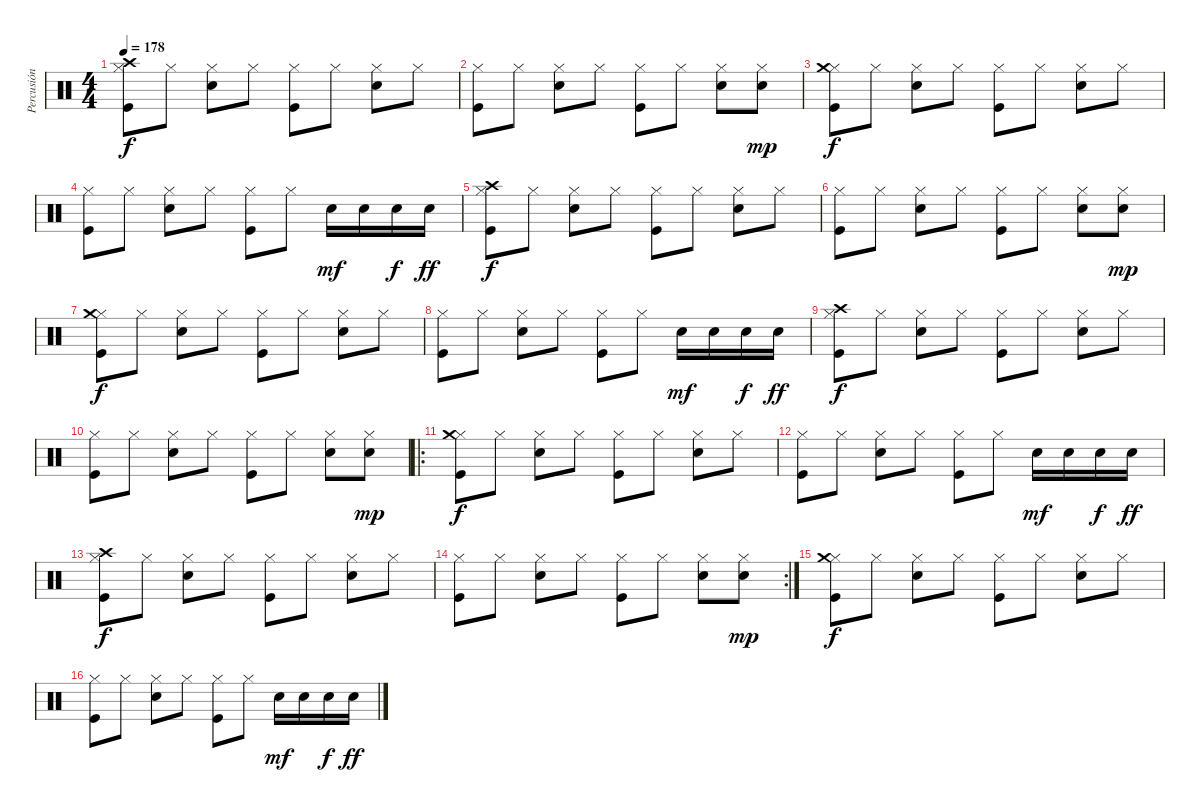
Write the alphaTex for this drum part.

\track ("Percusión" "Percusión") {instrument percussion}
\staff {score}
\articulation defaults
\ts (4 4)
\tempo 178
\clef neutral
\ks c
("Hi-Hat (closed)" "Crash high (hit)" "Kick (hit)").8{dy f} "Hi-Hat (closed)".8 ("Hi-Hat (closed)" "Electric Snare (hit)").8 "Hi-Hat (closed)".8 ("Hi-Hat (closed)" "Kick (hit)").8 "Hi-Hat (closed)".8 ("Hi-Hat (closed)" "Electric Snare (hit)").8 "Hi-Hat (closed)".8 |
("Hi-Hat (closed)" "Kick (hit)").8 "Hi-Hat (closed)".8 ("Hi-Hat (closed)" "Electric Snare (hit)").8 "Hi-Hat (closed)".8 ("Hi-Hat (closed)" "Kick (hit)").8 "Hi-Hat (closed)".8 ("Hi-Hat (closed)" "Electric Snare (hit)").8 ("Hi-Hat (closed)" "Electric Snare (hit)").8{dy mp} |
("Hi-Hat (closed)" "Crash medium (hit)" "Kick (hit)").8{dy f} "Hi-Hat (closed)".8 ("Hi-Hat (closed)" "Electric Snare (hit)").8 "Hi-Hat (closed)".8 ("Hi-Hat (closed)" "Kick (hit)").8 "Hi-Hat (closed)".8 ("Hi-Hat (closed)" "Electric Snare (hit)").8 "Hi-Hat (closed)".8 |
("Hi-Hat (closed)" "Kick (hit)").8 "Hi-Hat (closed)".8 ("Hi-Hat (closed)" "Electric Snare (hit)").8 "Hi-Hat (closed)".8 ("Hi-Hat (closed)" "Kick (hit)").8 "Hi-Hat (closed)".8 "Electric Snare (hit)".16{dy mf} "Electric Snare (hit)".16 "Electric Snare (hit)".16{dy f} "Electric Snare (hit)".16{dy ff} |
("Hi-Hat (closed)" "Crash high (hit)" "Kick (hit)").8{dy f} "Hi-Hat (closed)".8 ("Hi-Hat (closed)" "Electric Snare (hit)").8 "Hi-Hat (closed)".8 ("Hi-Hat (closed)" "Kick (hit)").8 "Hi-Hat (closed)".8 ("Hi-Hat (closed)" "Electric Snare (hit)").8 "Hi-Hat (closed)".8 |
("Hi-Hat (closed)" "Kick (hit)").8 "Hi-Hat (closed)".8 ("Hi-Hat (closed)" "Electric Snare (hit)").8 "Hi-Hat (closed)".8 ("Hi-Hat (closed)" "Kick (hit)").8 "Hi-Hat (closed)".8 ("Hi-Hat (closed)" "Electric Snare (hit)").8 ("Hi-Hat (closed)" "Electric Snare (hit)").8{dy mp} |
("Hi-Hat (closed)" "Crash medium (hit)" "Kick (hit)").8{dy f} "Hi-Hat (closed)".8 ("Hi-Hat (closed)" "Electric Snare (hit)").8 "Hi-Hat (closed)".8 ("Hi-Hat (closed)" "Kick (hit)").8 "Hi-Hat (closed)".8 ("Hi-Hat (closed)" "Electric Snare (hit)").8 "Hi-Hat (closed)".8 |
("Hi-Hat (closed)" "Kick (hit)").8 "Hi-Hat (closed)".8 ("Hi-Hat (closed)" "Electric Snare (hit)").8 "Hi-Hat (closed)".8 ("Hi-Hat (closed)" "Kick (hit)").8 "Hi-Hat (closed)".8 "Electric Snare (hit)".16{dy mf} "Electric Snare (hit)".16 "Electric Snare (hit)".16{dy f} "Electric Snare (hit)".16{dy ff} |
("Hi-Hat (closed)" "Crash high (hit)" "Kick (hit)").8{dy f} "Hi-Hat (closed)".8 ("Hi-Hat (closed)" "Electric Snare (hit)").8 "Hi-Hat (closed)".8 ("Hi-Hat (closed)" "Kick (hit)").8 "Hi-Hat (closed)".8 ("Hi-Hat (closed)" "Electric Snare (hit)").8 "Hi-Hat (closed)".8 |
("Hi-Hat (closed)" "Kick (hit)").8 "Hi-Hat (closed)".8 ("Hi-Hat (closed)" "Electric Snare (hit)").8 "Hi-Hat (closed)".8 ("Hi-Hat (closed)" "Kick (hit)").8 "Hi-Hat (closed)".8 ("Hi-Hat (closed)" "Electric Snare (hit)").8 ("Hi-Hat (closed)" "Electric Snare (hit)").8{dy mp} |
\ro
("Hi-Hat (closed)" "Crash medium (hit)" "Kick (hit)").8{dy f} "Hi-Hat (closed)".8 ("Hi-Hat (closed)" "Electric Snare (hit)").8 "Hi-Hat (closed)".8 ("Hi-Hat (closed)" "Kick (hit)").8 "Hi-Hat (closed)".8 ("Hi-Hat (closed)" "Electric Snare (hit)").8 "Hi-Hat (closed)".8 |
("Hi-Hat (closed)" "Kick (hit)").8 "Hi-Hat (closed)".8 ("Hi-Hat (closed)" "Electric Snare (hit)").8 "Hi-Hat (closed)".8 ("Hi-Hat (closed)" "Kick (hit)").8 "Hi-Hat (closed)".8 "Electric Snare (hit)".16{dy mf} "Electric Snare (hit)".16 "Electric Snare (hit)".16{dy f} "Electric Snare (hit)".16{dy ff} |
("Hi-Hat (closed)" "Crash high (hit)" "Kick (hit)").8{dy f} "Hi-Hat (closed)".8 ("Hi-Hat (closed)" "Electric Snare (hit)").8 "Hi-Hat (closed)".8 ("Hi-Hat (closed)" "Kick (hit)").8 "Hi-Hat (closed)".8 ("Hi-Hat (closed)" "Electric Snare (hit)").8 "Hi-Hat (closed)".8 |
\rc 2
("Hi-Hat (closed)" "Kick (hit)").8 "Hi-Hat (closed)".8 ("Hi-Hat (closed)" "Electric Snare (hit)").8 "Hi-Hat (closed)".8 ("Hi-Hat (closed)" "Kick (hit)").8 "Hi-Hat (closed)".8 ("Hi-Hat (closed)" "Electric Snare (hit)").8 ("Hi-Hat (closed)" "Electric Snare (hit)").8{dy mp} |
("Hi-Hat (closed)" "Crash medium (hit)" "Kick (hit)").8{dy f} "Hi-Hat (closed)".8 ("Hi-Hat (closed)" "Electric Snare (hit)").8 "Hi-Hat (closed)".8 ("Hi-Hat (closed)" "Kick (hit)").8 "Hi-Hat (closed)".8 ("Hi-Hat (closed)" "Electric Snare (hit)").8 "Hi-Hat (closed)".8 |
("Hi-Hat (closed)" "Kick (hit)").8 "Hi-Hat (closed)".8 ("Hi-Hat (closed)" "Electric Snare (hit)").8 "Hi-Hat (closed)".8 ("Hi-Hat (closed)" "Kick (hit)").8 "Hi-Hat (closed)".8 "Electric Snare (hit)".16{dy mf} "Electric Snare (hit)".16 "Electric Snare (hit)".16{dy f} "Electric Snare (hit)".16{dy ff}
